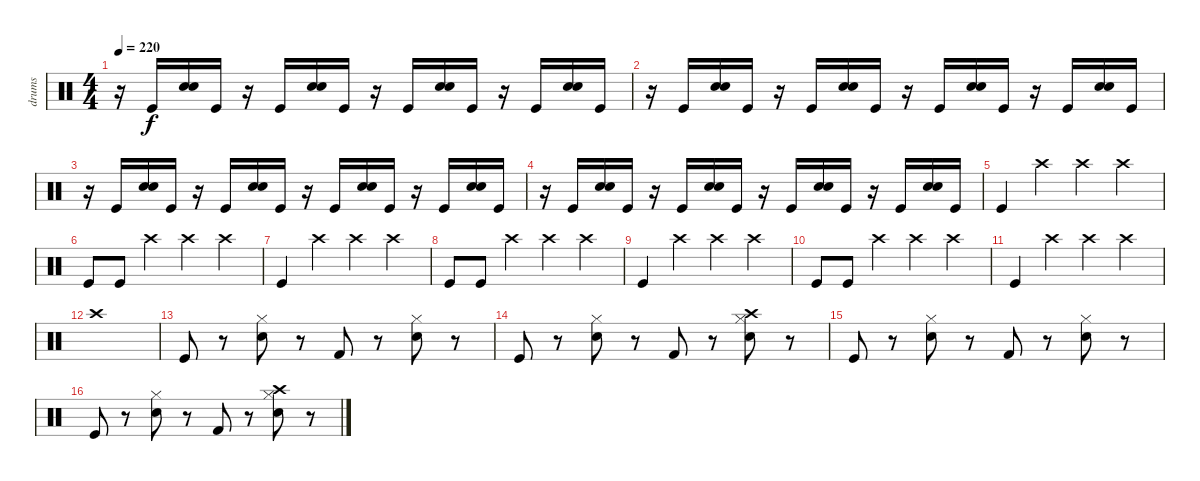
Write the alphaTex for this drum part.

\track ("drums" "drums") {instrument percussion}
\staff {score}
\articulation defaults
\ts (4 4)
\tempo 220
\clef neutral
\ks c
r.16{dy f} "Kick (hit)".16 ("Electric Snare (hit)" "Snare (hit) 2").16 "Kick (hit)".16 r.16 "Kick (hit)".16 ("Electric Snare (hit)" "Snare (hit) 2").16 "Kick (hit)".16 r.16 "Kick (hit)".16 ("Electric Snare (hit)" "Snare (hit) 2").16 "Kick (hit)".16 r.16 "Kick (hit)".16 ("Electric Snare (hit)" "Snare (hit) 2").16 "Kick (hit)".16 |
r.16 "Kick (hit)".16 ("Electric Snare (hit)" "Snare (hit) 2").16 "Kick (hit)".16 r.16 "Kick (hit)".16 ("Electric Snare (hit)" "Snare (hit) 2").16 "Kick (hit)".16 r.16 "Kick (hit)".16 ("Electric Snare (hit)" "Snare (hit) 2").16 "Kick (hit)".16 r.16 "Kick (hit)".16 ("Electric Snare (hit)" "Snare (hit) 2").16 "Kick (hit)".16 |
r.16 "Kick (hit)".16 ("Electric Snare (hit)" "Snare (hit) 2").16 "Kick (hit)".16 r.16 "Kick (hit)".16 ("Electric Snare (hit)" "Snare (hit) 2").16 "Kick (hit)".16 r.16 "Kick (hit)".16 ("Electric Snare (hit)" "Snare (hit) 2").16 "Kick (hit)".16 r.16 "Kick (hit)".16 ("Electric Snare (hit)" "Snare (hit) 2").16 "Kick (hit)".16 |
r.16 "Kick (hit)".16 ("Electric Snare (hit)" "Snare (hit) 2").16 "Kick (hit)".16 r.16 "Kick (hit)".16 ("Electric Snare (hit)" "Snare (hit) 2").16 "Kick (hit)".16 r.16 "Kick (hit)".16 ("Electric Snare (hit)" "Snare (hit) 2").16 "Kick (hit)".16 r.16 "Kick (hit)".16 ("Electric Snare (hit)" "Snare (hit) 2").16 "Kick (hit)".16 |
"Kick (hit)".4 "Crash high (hit)".4 "Crash high (hit)".4 "Crash high (hit)".4 |
"Kick (hit)".8 "Kick (hit)".8 "Crash high (hit)".4 "Crash high (hit)".4 "Crash high (hit)".4 |
"Kick (hit)".4 "Crash high (hit)".4 "Crash high (hit)".4 "Crash high (hit)".4 |
"Kick (hit)".8 "Kick (hit)".8 "Crash high (hit)".4 "Crash high (hit)".4 "Crash high (hit)".4 |
"Kick (hit)".4 "Crash high (hit)".4 "Crash high (hit)".4 "Crash high (hit)".4 |
"Kick (hit)".8 "Kick (hit)".8 "Crash high (hit)".4 "Crash high (hit)".4 "Crash high (hit)".4 |
"Kick (hit)".4 "Crash high (hit)".4 "Crash high (hit)".4 "Crash high (hit)".4 |
"Crash high (hit)".1 |
"Kick (hit)".8 r.8 ("Electric Snare (hit)" "Hi-Hat (closed)").8 r.8 "Kick (hit) 2".8 r.8 ("Electric Snare (hit)" "Hi-Hat (closed)").8 r.8 |
"Kick (hit)".8 r.8 ("Electric Snare (hit)" "Hi-Hat (closed)").8 r.8 "Kick (hit) 2".8 r.8 ("Electric Snare (hit)" "Hi-Hat (closed)" "Crash high (hit)").8 r.8 |
"Kick (hit)".8 r.8 ("Electric Snare (hit)" "Hi-Hat (closed)").8 r.8 "Kick (hit) 2".8 r.8 ("Electric Snare (hit)" "Hi-Hat (closed)").8 r.8 |
"Kick (hit)".8 r.8 ("Electric Snare (hit)" "Hi-Hat (closed)").8 r.8 "Kick (hit) 2".8 r.8 ("Electric Snare (hit)" "Hi-Hat (closed)" "Crash high (hit)").8 r.8
